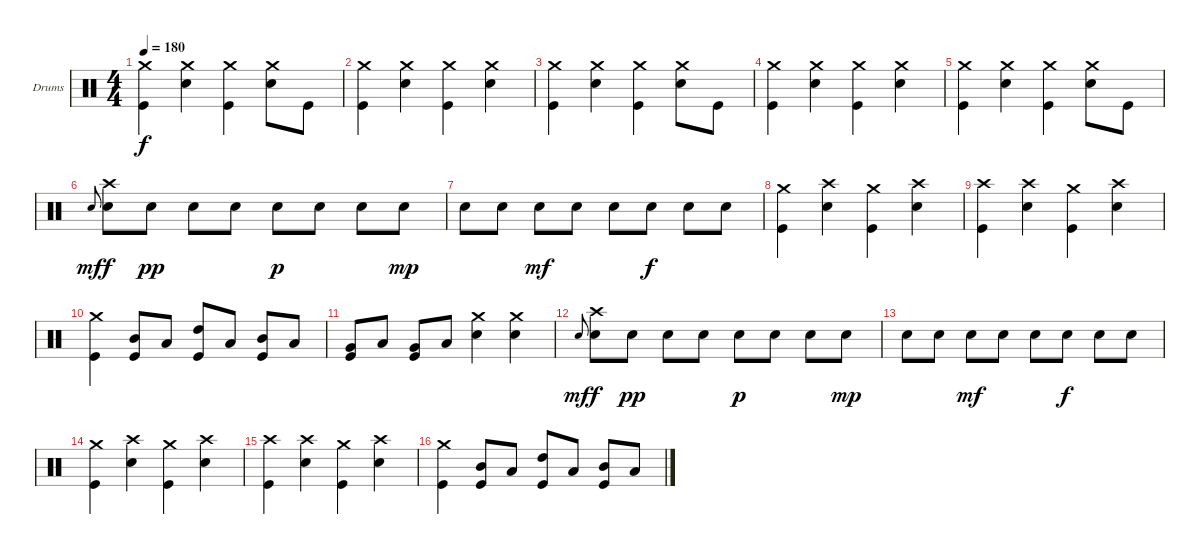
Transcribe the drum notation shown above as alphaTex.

\bracketExtendMode groupsimilarinstruments
\firstSystemTrackNameOrientation horizontal
\otherSystemsTrackNameOrientation horizontal
\track ("Drumkit" "Drums") {instrument percussion}
\staff {score}
\articulation defaults
\ts (4 4)
\tempo 180
\clef neutral
\ks c
("Crash medium (hit)" "Kick (hit)").4{dy f} ("Crash medium (hit)" "Snare (hit) 2").4 ("Crash medium (hit)" "Kick (hit)").4 ("Crash medium (hit)" "Snare (hit) 2").8 "Kick (hit)".8 |
("Crash medium (hit)" "Kick (hit)").4 ("Crash medium (hit)" "Snare (hit) 2").4 ("Crash medium (hit)" "Kick (hit)").4 ("Crash medium (hit)" "Snare (hit) 2").4 |
("Crash medium (hit)" "Kick (hit)").4 ("Crash medium (hit)" "Snare (hit) 2").4 ("Crash medium (hit)" "Kick (hit)").4 ("Crash medium (hit)" "Snare (hit) 2").8 "Kick (hit)".8 |
("Crash medium (hit)" "Kick (hit)").4 ("Crash medium (hit)" "Snare (hit) 2").4 ("Crash medium (hit)" "Kick (hit)").4 ("Crash medium (hit)" "Snare (hit) 2").4 |
("Crash medium (hit)" "Kick (hit)").4 ("Crash medium (hit)" "Snare (hit) 2").4 ("Crash medium (hit)" "Kick (hit)").4 ("Crash medium (hit)" "Snare (hit) 2").8 "Kick (hit)".8 |
"Snare (hit) 2".8{gr onbeat dy mf} ("Crash high (hit)" "Snare (hit) 2").8{dy f} "Snare (hit) 2".8{dy pp} "Snare (hit) 2".8 "Snare (hit) 2".8 "Snare (hit) 2".8{dy p} "Snare (hit) 2".8 "Snare (hit) 2".8 "Snare (hit) 2".8{dy mp} |
"Snare (hit) 2".8 "Snare (hit) 2".8 "Snare (hit) 2".8{dy mf} "Snare (hit) 2".8 "Snare (hit) 2".8 "Snare (hit) 2".8{dy f} "Snare (hit) 2".8 "Snare (hit) 2".8 |
("Crash medium (hit)" "Kick (hit)").4 ("Crash high (hit)" "Snare (hit) 2").4 ("Crash medium (hit)" "Kick (hit)").4 ("Crash high (hit)" "Snare (hit) 2").4 |
("Crash high (hit)" "Kick (hit)").4 ("Crash high (hit)" "Snare (hit) 2").4 ("Crash medium (hit)" "Kick (hit)").4 ("Crash high (hit)" "Snare (hit) 2").4 |
("Crash medium (hit)" "Kick (hit)").4 ("Mid Tom (hit)" "Kick (hit)").8 "Low Tom (hit)".8 ("High Tom (hit)" "Kick (hit)").8 "Low Tom (hit)".8 ("Mid Tom (hit)" "Kick (hit)").8 "Low Tom (hit)".8 |
("Very Low Tom (hit)" "Kick (hit)").8 "Low Tom (hit)".8 ("Very Low Tom (hit)" "Kick (hit)").8 "Low Tom (hit)".8 ("Crash medium (hit)" "Snare (hit) 2").4 ("Crash medium (hit)" "Snare (hit) 2").4 |
"Snare (hit) 2".8{gr onbeat dy mf} ("Crash high (hit)" "Snare (hit) 2").8{dy f} "Snare (hit) 2".8{dy pp} "Snare (hit) 2".8 "Snare (hit) 2".8 "Snare (hit) 2".8{dy p} "Snare (hit) 2".8 "Snare (hit) 2".8 "Snare (hit) 2".8{dy mp} |
"Snare (hit) 2".8 "Snare (hit) 2".8 "Snare (hit) 2".8{dy mf} "Snare (hit) 2".8 "Snare (hit) 2".8 "Snare (hit) 2".8{dy f} "Snare (hit) 2".8 "Snare (hit) 2".8 |
("Crash medium (hit)" "Kick (hit)").4 ("Crash high (hit)" "Snare (hit) 2").4 ("Crash medium (hit)" "Kick (hit)").4 ("Crash high (hit)" "Snare (hit) 2").4 |
("Crash high (hit)" "Kick (hit)").4 ("Crash high (hit)" "Snare (hit) 2").4 ("Crash medium (hit)" "Kick (hit)").4 ("Crash high (hit)" "Snare (hit) 2").4 |
("Crash medium (hit)" "Kick (hit)").4 ("Mid Tom (hit)" "Kick (hit)").8 "Low Tom (hit)".8 ("High Tom (hit)" "Kick (hit)").8 "Low Tom (hit)".8 ("Mid Tom (hit)" "Kick (hit)").8 "Low Tom (hit)".8
